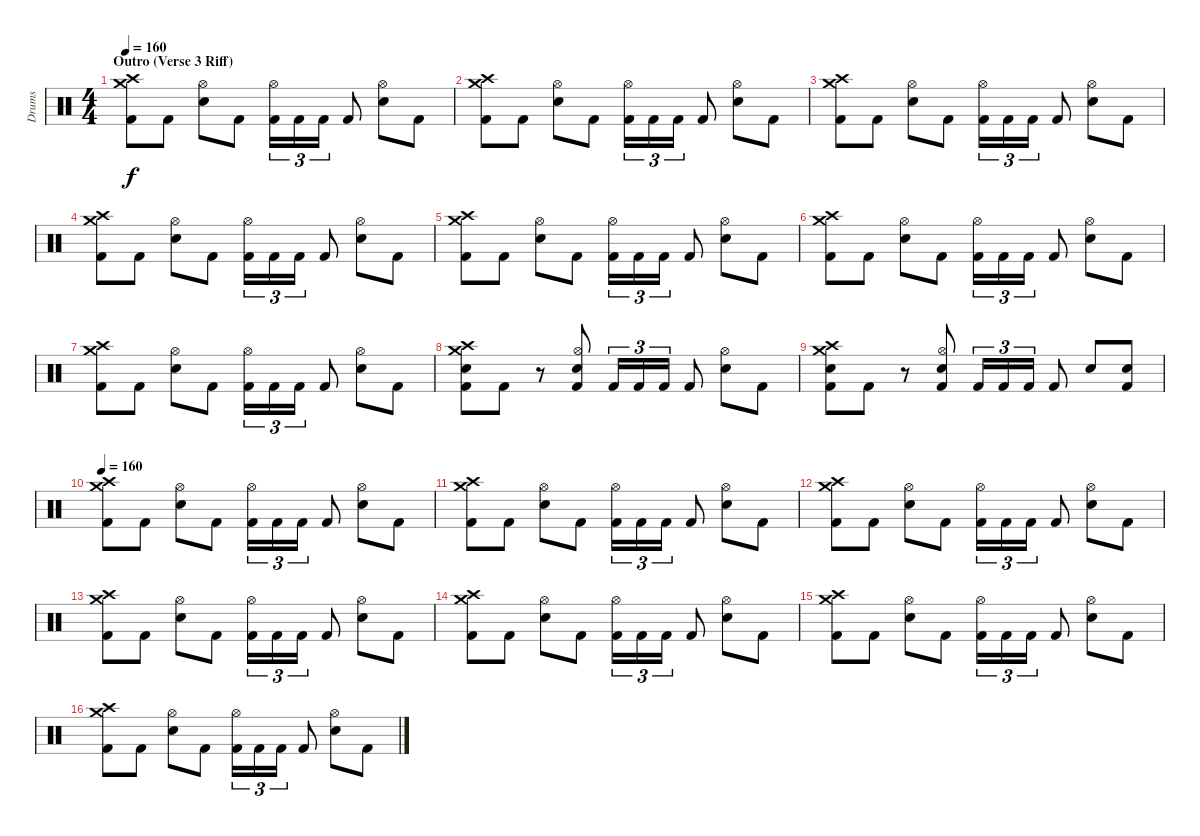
\track ("Drums" "Drums") {instrument percussion}
\staff {score}
\articulation defaults
\ts (4 4)
\section ("" "Outro (Verse 3 Riff)")
\tempo 160
\clef neutral
\ks c
("Crash medium (hit)" "Crash high (hit)" "Kick (hit) 2").8{dy f} "Kick (hit) 2".8 ("Hi-Hat (open)" "Electric Snare (hit)").8 "Kick (hit) 2".8 ("Hi-Hat (open)" "Kick (hit) 2").16{tu (3 2)} "Kick (hit) 2".16{tu (3 2)} "Kick (hit) 2".16{tu (3 2)} "Kick (hit) 2".8 ("Hi-Hat (open)" "Electric Snare (hit)").8 "Kick (hit) 2".8 |
("Crash medium (hit)" "Crash high (hit)" "Kick (hit) 2").8 "Kick (hit) 2".8 ("Hi-Hat (open)" "Electric Snare (hit)").8 "Kick (hit) 2".8 ("Hi-Hat (open)" "Kick (hit) 2").16{tu (3 2)} "Kick (hit) 2".16{tu (3 2)} "Kick (hit) 2".16{tu (3 2)} "Kick (hit) 2".8 ("Hi-Hat (open)" "Electric Snare (hit)").8 "Kick (hit) 2".8 |
("Crash medium (hit)" "Crash high (hit)" "Kick (hit) 2").8 "Kick (hit) 2".8 ("Hi-Hat (open)" "Electric Snare (hit)").8 "Kick (hit) 2".8 ("Hi-Hat (open)" "Kick (hit) 2").16{tu (3 2)} "Kick (hit) 2".16{tu (3 2)} "Kick (hit) 2".16{tu (3 2)} "Kick (hit) 2".8 ("Hi-Hat (open)" "Electric Snare (hit)").8 "Kick (hit) 2".8 |
("Crash medium (hit)" "Crash high (hit)" "Kick (hit) 2").8 "Kick (hit) 2".8 ("Hi-Hat (open)" "Electric Snare (hit)").8 "Kick (hit) 2".8 ("Hi-Hat (open)" "Kick (hit) 2").16{tu (3 2)} "Kick (hit) 2".16{tu (3 2)} "Kick (hit) 2".16{tu (3 2)} "Kick (hit) 2".8 ("Hi-Hat (open)" "Electric Snare (hit)").8 "Kick (hit) 2".8 |
("Crash medium (hit)" "Crash high (hit)" "Kick (hit) 2").8 "Kick (hit) 2".8 ("Hi-Hat (open)" "Electric Snare (hit)").8 "Kick (hit) 2".8 ("Hi-Hat (open)" "Kick (hit) 2").16{tu (3 2)} "Kick (hit) 2".16{tu (3 2)} "Kick (hit) 2".16{tu (3 2)} "Kick (hit) 2".8 ("Hi-Hat (open)" "Electric Snare (hit)").8 "Kick (hit) 2".8 |
("Crash medium (hit)" "Crash high (hit)" "Kick (hit) 2").8 "Kick (hit) 2".8 ("Hi-Hat (open)" "Electric Snare (hit)").8 "Kick (hit) 2".8 ("Hi-Hat (open)" "Kick (hit) 2").16{tu (3 2)} "Kick (hit) 2".16{tu (3 2)} "Kick (hit) 2".16{tu (3 2)} "Kick (hit) 2".8 ("Hi-Hat (open)" "Electric Snare (hit)").8 "Kick (hit) 2".8 |
("Crash medium (hit)" "Crash high (hit)" "Kick (hit) 2").8 "Kick (hit) 2".8 ("Hi-Hat (open)" "Electric Snare (hit)").8 "Kick (hit) 2".8 ("Hi-Hat (open)" "Kick (hit) 2").16{tu (3 2)} "Kick (hit) 2".16{tu (3 2)} "Kick (hit) 2".16{tu (3 2)} "Kick (hit) 2".8 ("Hi-Hat (open)" "Electric Snare (hit)").8 "Kick (hit) 2".8 |
("Crash medium (hit)" "Crash high (hit)" "Electric Snare (hit)" "Kick (hit) 2").8 "Kick (hit) 2".8 r.8 ("Hi-Hat (open)" "Electric Snare (hit)" "Kick (hit) 2").8 "Kick (hit) 2".16{tu (3 2)} "Kick (hit) 2".16{tu (3 2)} "Kick (hit) 2".16{tu (3 2)} "Kick (hit) 2".8 ("Hi-Hat (open)" "Electric Snare (hit)").8 "Kick (hit) 2".8 |
("Crash medium (hit)" "Crash high (hit)" "Electric Snare (hit)" "Kick (hit) 2").8 "Kick (hit) 2".8 r.8 ("Hi-Hat (open)" "Electric Snare (hit)" "Kick (hit) 2").8 "Kick (hit) 2".16{tu (3 2)} "Kick (hit) 2".16{tu (3 2)} "Kick (hit) 2".16{tu (3 2)} "Kick (hit) 2".8 "Electric Snare (hit)".8 ("Electric Snare (hit)" "Kick (hit) 2").8 |
\tempo 160
("Crash medium (hit)" "Crash high (hit)" "Kick (hit) 2").8 "Kick (hit) 2".8 ("Hi-Hat (open)" "Electric Snare (hit)").8 "Kick (hit) 2".8 ("Hi-Hat (open)" "Kick (hit) 2").16{tu (3 2)} "Kick (hit) 2".16{tu (3 2)} "Kick (hit) 2".16{tu (3 2)} "Kick (hit) 2".8 ("Hi-Hat (open)" "Electric Snare (hit)").8 "Kick (hit) 2".8 |
("Crash medium (hit)" "Crash high (hit)" "Kick (hit) 2").8 "Kick (hit) 2".8 ("Hi-Hat (open)" "Electric Snare (hit)").8 "Kick (hit) 2".8 ("Hi-Hat (open)" "Kick (hit) 2").16{tu (3 2)} "Kick (hit) 2".16{tu (3 2)} "Kick (hit) 2".16{tu (3 2)} "Kick (hit) 2".8 ("Hi-Hat (open)" "Electric Snare (hit)").8 "Kick (hit) 2".8 |
("Crash medium (hit)" "Crash high (hit)" "Kick (hit) 2").8 "Kick (hit) 2".8 ("Hi-Hat (open)" "Electric Snare (hit)").8 "Kick (hit) 2".8 ("Hi-Hat (open)" "Kick (hit) 2").16{tu (3 2)} "Kick (hit) 2".16{tu (3 2)} "Kick (hit) 2".16{tu (3 2)} "Kick (hit) 2".8 ("Hi-Hat (open)" "Electric Snare (hit)").8 "Kick (hit) 2".8 |
("Crash medium (hit)" "Crash high (hit)" "Kick (hit) 2").8 "Kick (hit) 2".8 ("Hi-Hat (open)" "Electric Snare (hit)").8 "Kick (hit) 2".8 ("Hi-Hat (open)" "Kick (hit) 2").16{tu (3 2)} "Kick (hit) 2".16{tu (3 2)} "Kick (hit) 2".16{tu (3 2)} "Kick (hit) 2".8 ("Hi-Hat (open)" "Electric Snare (hit)").8 "Kick (hit) 2".8 |
("Crash medium (hit)" "Crash high (hit)" "Kick (hit) 2").8 "Kick (hit) 2".8 ("Hi-Hat (open)" "Electric Snare (hit)").8 "Kick (hit) 2".8 ("Hi-Hat (open)" "Kick (hit) 2").16{tu (3 2)} "Kick (hit) 2".16{tu (3 2)} "Kick (hit) 2".16{tu (3 2)} "Kick (hit) 2".8 ("Hi-Hat (open)" "Electric Snare (hit)").8 "Kick (hit) 2".8 |
("Crash medium (hit)" "Crash high (hit)" "Kick (hit) 2").8 "Kick (hit) 2".8 ("Hi-Hat (open)" "Electric Snare (hit)").8 "Kick (hit) 2".8 ("Hi-Hat (open)" "Kick (hit) 2").16{tu (3 2)} "Kick (hit) 2".16{tu (3 2)} "Kick (hit) 2".16{tu (3 2)} "Kick (hit) 2".8 ("Hi-Hat (open)" "Electric Snare (hit)").8 "Kick (hit) 2".8 |
("Crash medium (hit)" "Crash high (hit)" "Kick (hit) 2").8 "Kick (hit) 2".8 ("Hi-Hat (open)" "Electric Snare (hit)").8 "Kick (hit) 2".8 ("Hi-Hat (open)" "Kick (hit) 2").16{tu (3 2)} "Kick (hit) 2".16{tu (3 2)} "Kick (hit) 2".16{tu (3 2)} "Kick (hit) 2".8 ("Hi-Hat (open)" "Electric Snare (hit)").8 "Kick (hit) 2".8
